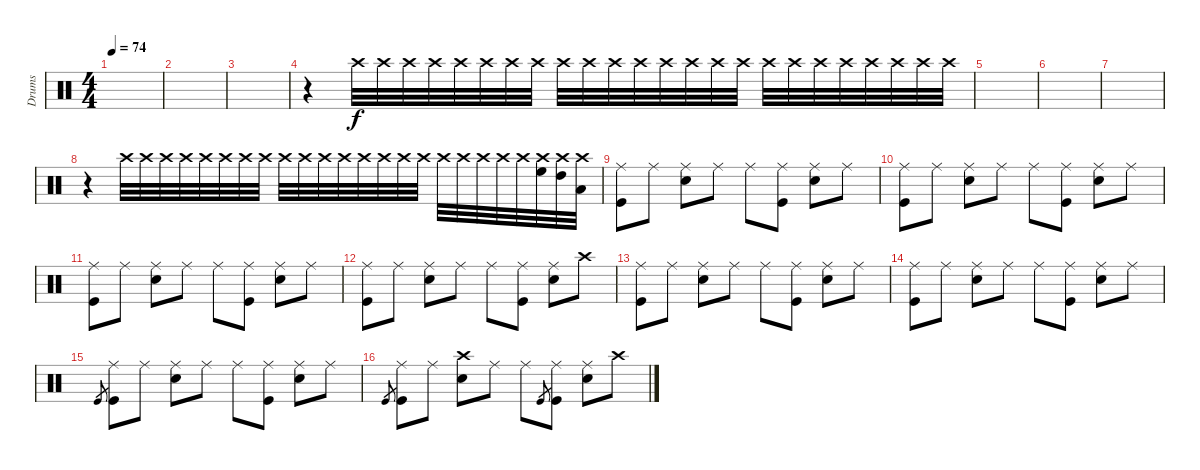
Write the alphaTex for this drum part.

\track ("Drums" "Drums") {instrument percussion}
\staff {score}
\articulation defaults
\ts (4 4)
\tempo 74
\clef neutral
\ks c
|
|
|
r.4{volume 0} "Crash high (hit)".32{volume 16} "Crash high (hit)".32 "Crash high (hit)".32 "Crash high (hit)".32 "Crash high (hit)".32 "Crash high (hit)".32 "Crash high (hit)".32 "Crash high (hit)".32 "Crash high (hit)".32 "Crash high (hit)".32 "Crash high (hit)".32 "Crash high (hit)".32 "Crash high (hit)".32 "Crash high (hit)".32 "Crash high (hit)".32 "Crash high (hit)".32 "Crash high (hit)".32 "Crash high (hit)".32 "Crash high (hit)".32 "Crash high (hit)".32 "Crash high (hit)".32 "Crash high (hit)".32 "Crash high (hit)".32 "Crash high (hit)".32 |
|
|
|
r.4{volume 0} "Crash high (hit)".32{volume 16} "Crash high (hit)".32 "Crash high (hit)".32 "Crash high (hit)".32 "Crash high (hit)".32 "Crash high (hit)".32 "Crash high (hit)".32 "Crash high (hit)".32 "Crash high (hit)".32 "Crash high (hit)".32 "Crash high (hit)".32 "Crash high (hit)".32 "Crash high (hit)".32 "Crash high (hit)".32 "Crash high (hit)".32 "Crash high (hit)".32 "Crash high (hit)".32 "Crash high (hit)".32 "Crash high (hit)".32 "Crash high (hit)".32 "Crash high (hit)".32 ("High Floor Tom (hit)" "Crash high (hit)").32 ("High Tom (hit)" "Crash high (hit)").32 ("Low Tom (hit)" "Crash high (hit)").32 |
("Ride (middle)" "Kick (hit)").8 "Ride (middle)".8 ("Ride (middle)" "Snare (hit) 2").8 "Ride (middle)".8 "Ride (middle)".8 ("Ride (middle)" "Kick (hit)").8 ("Ride (middle)" "Snare (hit) 2").8 "Ride (middle)".8 |
("Ride (middle)" "Kick (hit)").8 "Ride (middle)".8 ("Ride (middle)" "Snare (hit) 2").8 "Ride (middle)".8 "Ride (middle)".8 ("Ride (middle)" "Kick (hit)").8 ("Ride (middle)" "Snare (hit) 2").8 "Ride (middle)".8 |
("Ride (middle)" "Kick (hit)").8 "Ride (middle)".8 ("Ride (middle)" "Snare (hit) 2").8 "Ride (middle)".8 "Ride (middle)".8 ("Ride (middle)" "Kick (hit)").8 ("Ride (middle)" "Snare (hit) 2").8 "Ride (middle)".8 |
("Ride (middle)" "Kick (hit)").8 "Ride (middle)".8 ("Ride (middle)" "Snare (hit) 2").8 "Ride (middle)".8 "Ride (middle)".8 ("Ride (middle)" "Kick (hit)").8 ("Ride (middle)" "Snare (hit) 2").8 "Crash high (hit)".8 |
("Ride (middle)" "Kick (hit)").8 "Ride (middle)".8 ("Ride (middle)" "Snare (hit) 2").8 "Ride (middle)".8 "Ride (middle)".8 ("Ride (middle)" "Kick (hit)").8 ("Ride (middle)" "Snare (hit) 2").8 "Ride (middle)".8 |
("Ride (middle)" "Kick (hit)").8 "Ride (middle)".8 ("Ride (middle)" "Snare (hit) 2").8 "Ride (middle)".8 "Ride (middle)".8 ("Ride (middle)" "Kick (hit)").8 ("Ride (middle)" "Snare (hit) 2").8 "Ride (middle)".8 |
"Kick (hit)".8{gr} ("Ride (middle)" "Kick (hit)").8 "Ride (middle)".8 ("Ride (middle)" "Snare (hit) 2").8 "Ride (middle)".8 "Ride (middle)".8 ("Ride (middle)" "Kick (hit)").8 ("Ride (middle)" "Snare (hit) 2").8 "Ride (middle)".8 |
"Kick (hit)".8{gr} ("Ride (middle)" "Kick (hit)").8 "Ride (middle)".8 ("Crash high (hit)" "Snare (hit) 2").8 "Ride (middle)".8 "Ride (middle)".8 "Kick (hit)".8{gr} ("Ride (middle)" "Kick (hit)").8 ("Ride (middle)" "Snare (hit) 2").8 "Crash high (hit)".8
